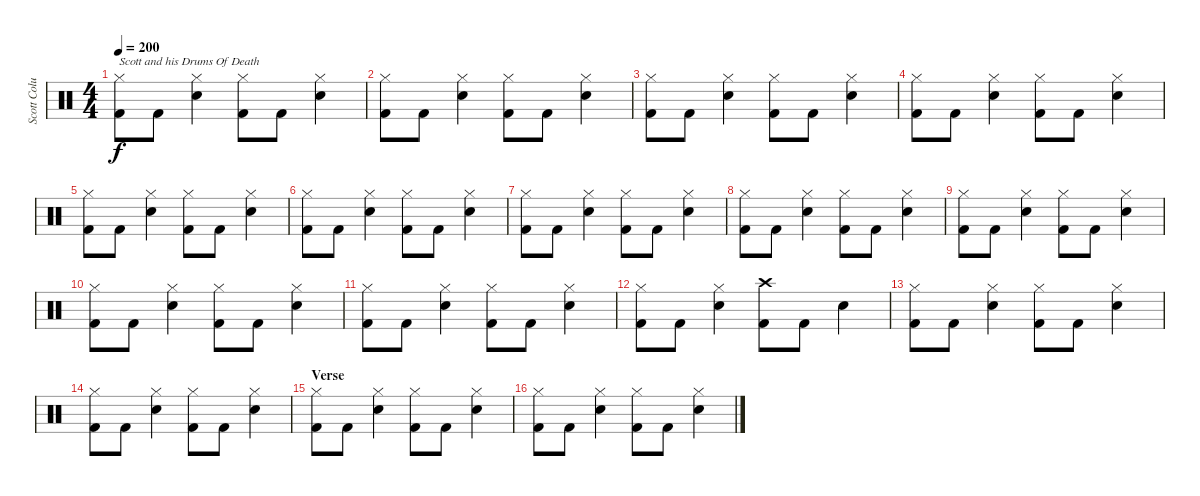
\track ("Scott Columbus" "Scott Colu") {instrument percussion}
\staff {score}
\articulation defaults
\ts (4 4)
\tempo 200
\clef neutral
\ks c
("Hi-Hat (closed)" "Kick (hit) 2").8{txt "Scott and his Drums Of Death" dy f} "Kick (hit) 2".8 ("Hi-Hat (closed)" "Snare (hit) 2").4 ("Hi-Hat (closed)" "Kick (hit) 2").8 "Kick (hit) 2".8 ("Hi-Hat (closed)" "Snare (hit) 2").4 |
("Hi-Hat (closed)" "Kick (hit) 2").8 "Kick (hit) 2".8 ("Hi-Hat (closed)" "Snare (hit) 2").4 ("Hi-Hat (closed)" "Kick (hit) 2").8 "Kick (hit) 2".8 ("Hi-Hat (closed)" "Snare (hit) 2").4 |
("Hi-Hat (closed)" "Kick (hit) 2").8 "Kick (hit) 2".8 ("Hi-Hat (closed)" "Snare (hit) 2").4 ("Hi-Hat (closed)" "Kick (hit) 2").8 "Kick (hit) 2".8 ("Hi-Hat (closed)" "Snare (hit) 2").4 |
("Hi-Hat (closed)" "Kick (hit) 2").8 "Kick (hit) 2".8 ("Hi-Hat (closed)" "Snare (hit) 2").4 ("Hi-Hat (closed)" "Kick (hit) 2").8 "Kick (hit) 2".8 ("Hi-Hat (closed)" "Snare (hit) 2").4 |
("Hi-Hat (closed)" "Kick (hit) 2").8 "Kick (hit) 2".8 ("Hi-Hat (closed)" "Snare (hit) 2").4 ("Hi-Hat (closed)" "Kick (hit) 2").8 "Kick (hit) 2".8 ("Hi-Hat (closed)" "Snare (hit) 2").4 |
("Hi-Hat (closed)" "Kick (hit) 2").8 "Kick (hit) 2".8 ("Hi-Hat (closed)" "Snare (hit) 2").4 ("Hi-Hat (closed)" "Kick (hit) 2").8 "Kick (hit) 2".8 ("Hi-Hat (closed)" "Snare (hit) 2").4 |
("Hi-Hat (closed)" "Kick (hit) 2").8 "Kick (hit) 2".8 ("Hi-Hat (closed)" "Snare (hit) 2").4 ("Hi-Hat (closed)" "Kick (hit) 2").8 "Kick (hit) 2".8 ("Hi-Hat (closed)" "Snare (hit) 2").4 |
("Hi-Hat (closed)" "Kick (hit) 2").8 "Kick (hit) 2".8 ("Hi-Hat (closed)" "Snare (hit) 2").4 ("Hi-Hat (closed)" "Kick (hit) 2").8 "Kick (hit) 2".8 ("Hi-Hat (closed)" "Snare (hit) 2").4 |
("Hi-Hat (closed)" "Kick (hit) 2").8 "Kick (hit) 2".8 ("Hi-Hat (closed)" "Snare (hit) 2").4 ("Hi-Hat (closed)" "Kick (hit) 2").8 "Kick (hit) 2".8 ("Hi-Hat (closed)" "Snare (hit) 2").4 |
("Hi-Hat (closed)" "Kick (hit) 2").8 "Kick (hit) 2".8 ("Hi-Hat (closed)" "Snare (hit) 2").4 ("Hi-Hat (closed)" "Kick (hit) 2").8 "Kick (hit) 2".8 ("Hi-Hat (closed)" "Snare (hit) 2").4 |
("Hi-Hat (closed)" "Kick (hit) 2").8 "Kick (hit) 2".8 ("Hi-Hat (closed)" "Snare (hit) 2").4 ("Hi-Hat (closed)" "Kick (hit) 2").8 "Kick (hit) 2".8 ("Hi-Hat (closed)" "Snare (hit) 2").4 |
("Hi-Hat (closed)" "Kick (hit) 2").8 "Kick (hit) 2".8 ("Hi-Hat (closed)" "Snare (hit) 2").4 ("Crash high (hit)" "Kick (hit) 2").8 "Kick (hit) 2".8 "Snare (hit) 2".4 |
("Hi-Hat (closed)" "Kick (hit) 2").8 "Kick (hit) 2".8 ("Hi-Hat (closed)" "Snare (hit) 2").4 ("Hi-Hat (closed)" "Kick (hit) 2").8 "Kick (hit) 2".8 ("Hi-Hat (closed)" "Snare (hit) 2").4 |
("Hi-Hat (closed)" "Kick (hit) 2").8 "Kick (hit) 2".8 ("Hi-Hat (closed)" "Snare (hit) 2").4 ("Hi-Hat (closed)" "Kick (hit) 2").8 "Kick (hit) 2".8 ("Hi-Hat (closed)" "Snare (hit) 2").4 |
\section ("" "Verse")
("Hi-Hat (closed)" "Kick (hit) 2").8 "Kick (hit) 2".8 ("Hi-Hat (closed)" "Snare (hit) 2").4 ("Hi-Hat (closed)" "Kick (hit) 2").8 "Kick (hit) 2".8 ("Hi-Hat (closed)" "Snare (hit) 2").4 |
("Hi-Hat (closed)" "Kick (hit) 2").8 "Kick (hit) 2".8 ("Hi-Hat (closed)" "Snare (hit) 2").4 ("Hi-Hat (closed)" "Kick (hit) 2").8 "Kick (hit) 2".8 ("Hi-Hat (closed)" "Snare (hit) 2").4
